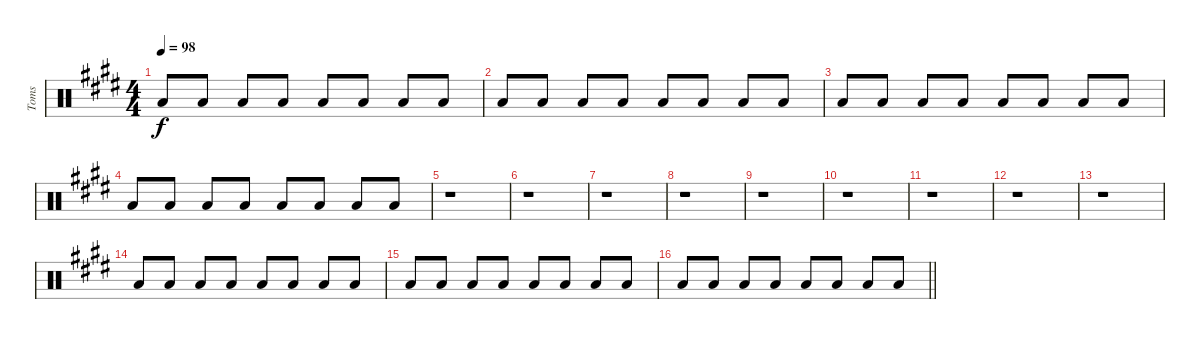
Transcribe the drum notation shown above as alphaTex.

\track ("Toms" "Toms") {instrument percussion}
\staff {score}
\articulation defaults
\ts (4 4)
\tempo 98
\clef neutral
\ks c#minor "Low Tom (hit)".8{dy f} "Low Floor Tom (hit)".8 "Low Floor Tom (hit)".8 "Low Floor Tom (hit)".8 "Low Tom (hit)".8 "Low Floor Tom (hit)".8 "Low Floor Tom (hit)".8 "Low Floor Tom (hit)".8
|
"Low Tom (hit)".8 "Low Floor Tom (hit)".8 "Low Floor Tom (hit)".8 "Low Floor Tom (hit)".8 "Low Tom (hit)".8 "Low Floor Tom (hit)".8 "Low Floor Tom (hit)".8 "Low Floor Tom (hit)".8 |
"Low Tom (hit)".8 "Low Floor Tom (hit)".8 "Low Floor Tom (hit)".8 "Low Floor Tom (hit)".8 "Low Tom (hit)".8 "Low Floor Tom (hit)".8 "Low Floor Tom (hit)".8 "Low Floor Tom (hit)".8 |
"Low Tom (hit)".8 "Low Floor Tom (hit)".8 "Low Floor Tom (hit)".8 "Low Floor Tom (hit)".8 "Low Tom (hit)".8 "Low Floor Tom (hit)".8 "Low Floor Tom (hit)".8 "Low Floor Tom (hit)".8 |
r.1 |
r.1 |
r.1 |
r.1 |
r.1 |
r.1 |
r.1 |
r.1 |
r.1 |
"Low Tom (hit)".8 "Low Floor Tom (hit)".8 "Low Floor Tom (hit)".8 "Low Floor Tom (hit)".8 "Low Tom (hit)".8 "Low Floor Tom (hit)".8 "Low Floor Tom (hit)".8 "Low Floor Tom (hit)".8 |
"Low Tom (hit)".8 "Low Floor Tom (hit)".8 "Low Floor Tom (hit)".8 "Low Floor Tom (hit)".8 "Low Tom (hit)".8 "Low Floor Tom (hit)".8 "Low Floor Tom (hit)".8 "Low Floor Tom (hit)".8 |
\barLineRight lightlight "Low Tom (hit)".8 "Low Floor Tom (hit)".8 "Low Floor Tom (hit)".8 "Low Floor Tom (hit)".8 "Low Tom (hit)".8 "Low Floor Tom (hit)".8 "Low Floor Tom (hit)".8 "Low Floor Tom (hit)".8
